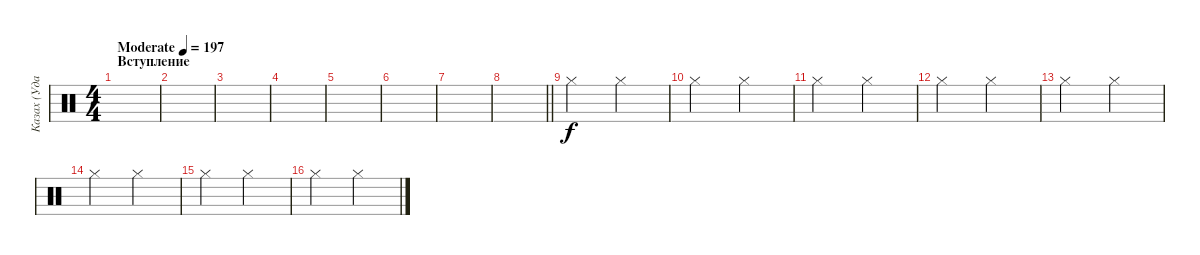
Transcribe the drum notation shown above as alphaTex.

\track ("Казах (Ударные)" "Казах (Уда") {instrument percussion}
\staff {score}
\articulation defaults
\ts (4 4)
\section ("" "Вступление")
\tempo (197 "Moderate")
\clef neutral
\ks c
|
|
|
|
|
|
|
\barLineRight lightlight
|
\section ("" "")
"Hi-Hat (closed)".2 "Hi-Hat (closed)".2 |
"Hi-Hat (closed)".2 "Hi-Hat (closed)".2 |
"Hi-Hat (closed)".2 "Hi-Hat (closed)".2 |
"Hi-Hat (closed)".2 "Hi-Hat (closed)".2 |
"Hi-Hat (closed)".2 "Hi-Hat (closed)".2 |
"Hi-Hat (closed)".2 "Hi-Hat (closed)".2 |
"Hi-Hat (closed)".2 "Hi-Hat (closed)".2 |
"Hi-Hat (closed)".2 "Hi-Hat (closed)".2
